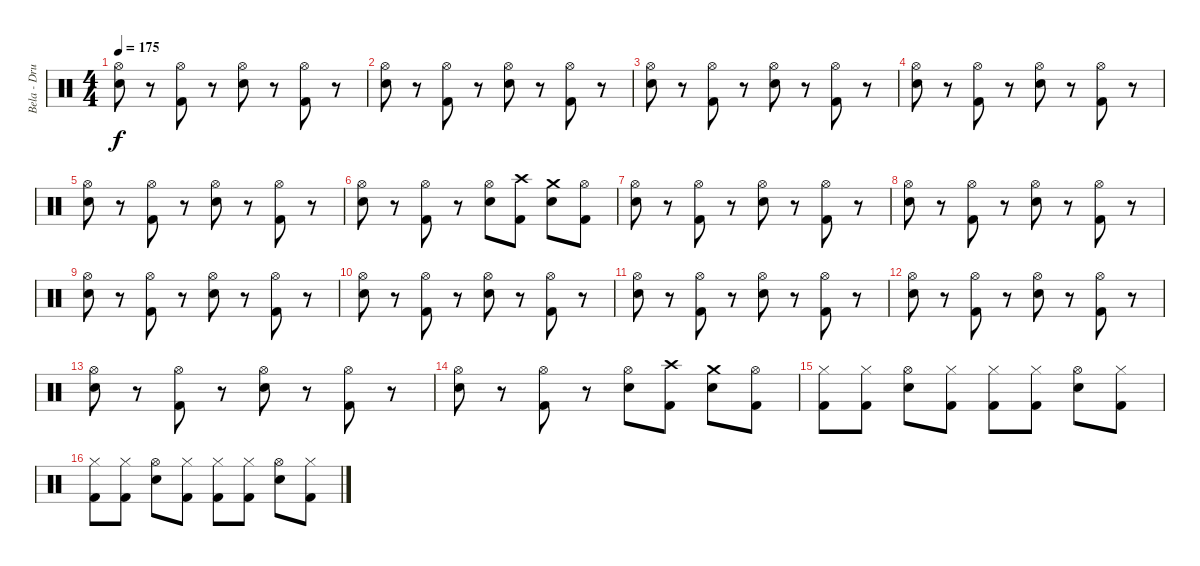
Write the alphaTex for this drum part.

\track ("Bela - Drums" "Bela - Dru") {instrument percussion}
\staff {score}
\articulation defaults
\ts (4 4)
\tempo 175
\clef neutral
\ks c
("Hi-Hat (open)" "Electric Snare (hit)").8{dy f} r.8 ("Hi-Hat (open)" "Kick (hit) 2").8 r.8 ("Hi-Hat (open)" "Electric Snare (hit)").8 r.8 ("Hi-Hat (open)" "Kick (hit) 2").8 r.8 |
("Hi-Hat (open)" "Electric Snare (hit)").8 r.8 ("Hi-Hat (open)" "Kick (hit) 2").8 r.8 ("Hi-Hat (open)" "Electric Snare (hit)").8 r.8 ("Hi-Hat (open)" "Kick (hit) 2").8 r.8 |
("Hi-Hat (open)" "Electric Snare (hit)").8 r.8 ("Hi-Hat (open)" "Kick (hit) 2").8 r.8 ("Hi-Hat (open)" "Electric Snare (hit)").8 r.8 ("Hi-Hat (open)" "Kick (hit) 2").8 r.8 |
("Hi-Hat (open)" "Electric Snare (hit)").8 r.8 ("Hi-Hat (open)" "Kick (hit) 2").8 r.8 ("Hi-Hat (open)" "Electric Snare (hit)").8 r.8 ("Hi-Hat (open)" "Kick (hit) 2").8 r.8 |
("Hi-Hat (open)" "Electric Snare (hit)").8 r.8 ("Hi-Hat (open)" "Kick (hit) 2").8 r.8 ("Hi-Hat (open)" "Electric Snare (hit)").8 r.8 ("Hi-Hat (open)" "Kick (hit) 2").8 r.8 |
("Hi-Hat (open)" "Electric Snare (hit)").8 r.8 ("Hi-Hat (open)" "Kick (hit) 2").8 r.8 ("Hi-Hat (open)" "Electric Snare (hit)").8 ("Crash high (hit)" "Kick (hit) 2").8 ("Crash medium (hit)" "Electric Snare (hit)").8 ("Hi-Hat (open)" "Kick (hit) 2").8 |
("Hi-Hat (open)" "Electric Snare (hit)").8 r.8 ("Hi-Hat (open)" "Kick (hit) 2").8 r.8 ("Hi-Hat (open)" "Electric Snare (hit)").8 r.8 ("Hi-Hat (open)" "Kick (hit) 2").8 r.8 |
("Hi-Hat (open)" "Electric Snare (hit)").8 r.8 ("Hi-Hat (open)" "Kick (hit) 2").8 r.8 ("Hi-Hat (open)" "Electric Snare (hit)").8 r.8 ("Hi-Hat (open)" "Kick (hit) 2").8 r.8 |
("Hi-Hat (open)" "Electric Snare (hit)").8 r.8 ("Hi-Hat (open)" "Kick (hit) 2").8 r.8 ("Hi-Hat (open)" "Electric Snare (hit)").8 r.8 ("Hi-Hat (open)" "Kick (hit) 2").8 r.8 |
("Hi-Hat (open)" "Electric Snare (hit)").8 r.8 ("Hi-Hat (open)" "Kick (hit) 2").8 r.8 ("Hi-Hat (open)" "Electric Snare (hit)").8 r.8 ("Hi-Hat (open)" "Kick (hit) 2").8 r.8 |
("Hi-Hat (open)" "Electric Snare (hit)").8 r.8 ("Hi-Hat (open)" "Kick (hit) 2").8 r.8 ("Hi-Hat (open)" "Electric Snare (hit)").8 r.8 ("Hi-Hat (open)" "Kick (hit) 2").8 r.8 |
("Hi-Hat (open)" "Electric Snare (hit)").8 r.8 ("Hi-Hat (open)" "Kick (hit) 2").8 r.8 ("Hi-Hat (open)" "Electric Snare (hit)").8 r.8 ("Hi-Hat (open)" "Kick (hit) 2").8 r.8 |
("Hi-Hat (open)" "Electric Snare (hit)").8 r.8 ("Hi-Hat (open)" "Kick (hit) 2").8 r.8 ("Hi-Hat (open)" "Electric Snare (hit)").8 r.8 ("Hi-Hat (open)" "Kick (hit) 2").8 r.8 |
("Hi-Hat (open)" "Electric Snare (hit)").8 r.8 ("Hi-Hat (open)" "Kick (hit) 2").8 r.8 ("Hi-Hat (open)" "Electric Snare (hit)").8 ("Crash high (hit)" "Kick (hit) 2").8 ("Crash medium (hit)" "Electric Snare (hit)").8 ("Hi-Hat (open)" "Kick (hit) 2").8 |
("Hi-Hat (closed)" "Kick (hit) 2").8 ("Hi-Hat (closed)" "Kick (hit) 2").8 ("Hi-Hat (open)" "Electric Snare (hit)").8 ("Hi-Hat (closed)" "Kick (hit) 2").8 ("Hi-Hat (closed)" "Kick (hit) 2").8 ("Hi-Hat (closed)" "Kick (hit) 2").8 ("Hi-Hat (open)" "Electric Snare (hit)").8 ("Hi-Hat (closed)" "Kick (hit) 2").8 |
("Hi-Hat (closed)" "Kick (hit) 2").8 ("Hi-Hat (closed)" "Kick (hit) 2").8 ("Hi-Hat (open)" "Electric Snare (hit)").8 ("Hi-Hat (closed)" "Kick (hit) 2").8 ("Hi-Hat (closed)" "Kick (hit) 2").8 ("Hi-Hat (closed)" "Kick (hit) 2").8 ("Hi-Hat (open)" "Electric Snare (hit)").8 ("Hi-Hat (closed)" "Kick (hit) 2").8
